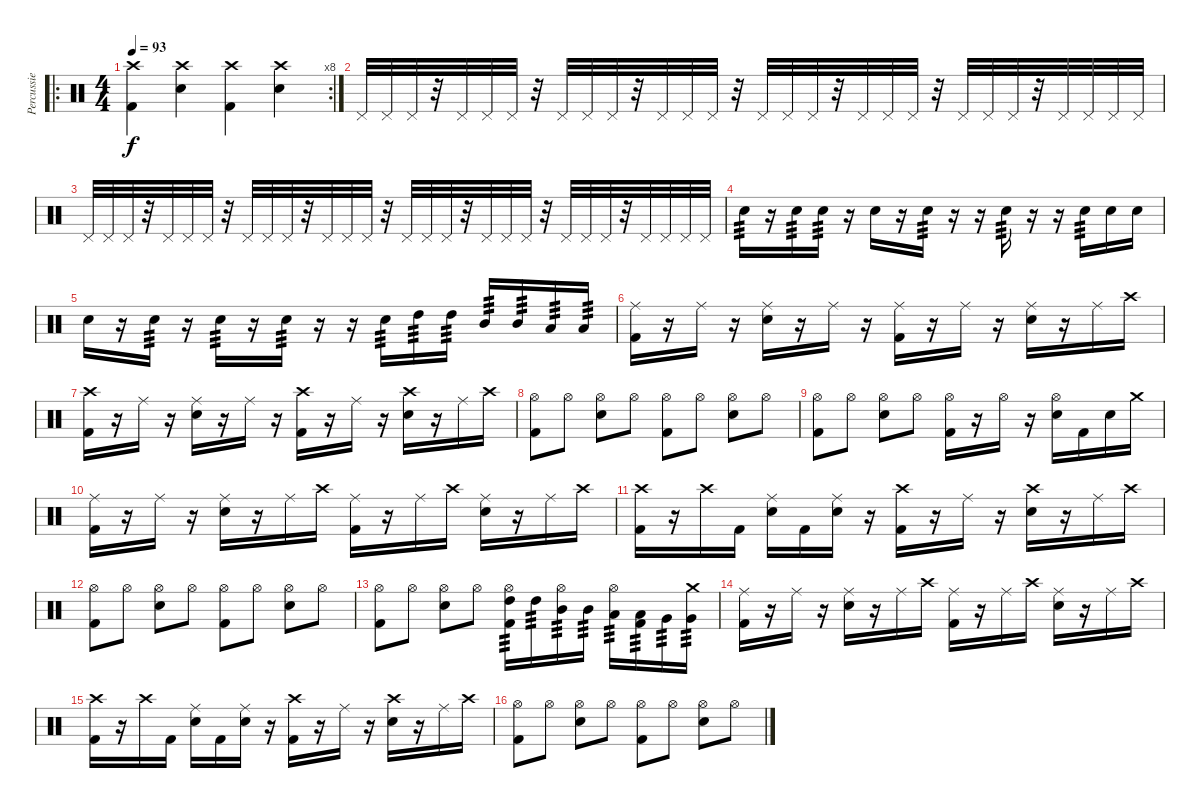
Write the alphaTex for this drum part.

\track ("Percussie" "Percussie") {instrument percussion}
\staff {score}
\articulation defaults
\ro
\rc 8
\ts (4 4)
\tempo 93
\clef neutral
\ks c
("Crash high (hit)" "Kick (hit) 2").4{dy f} ("Crash high (hit)" "Electric Snare (hit)").4 ("Crash high (hit)" "Kick (hit) 2").4 ("Crash high (hit)" "Electric Snare (hit)").4 |
"Pedal Hi-Hat (hit)".32 "Pedal Hi-Hat (hit)".32 "Pedal Hi-Hat (hit)".32 r.32 "Pedal Hi-Hat (hit)".32 "Pedal Hi-Hat (hit)".32 "Pedal Hi-Hat (hit)".32 r.32 "Pedal Hi-Hat (hit)".32 "Pedal Hi-Hat (hit)".32 "Pedal Hi-Hat (hit)".32 r.32 "Pedal Hi-Hat (hit)".32 "Pedal Hi-Hat (hit)".32 "Pedal Hi-Hat (hit)".32 r.32 "Pedal Hi-Hat (hit)".32 "Pedal Hi-Hat (hit)".32 "Pedal Hi-Hat (hit)".32 r.32 "Pedal Hi-Hat (hit)".32 "Pedal Hi-Hat (hit)".32 "Pedal Hi-Hat (hit)".32 r.32 "Pedal Hi-Hat (hit)".32 "Pedal Hi-Hat (hit)".32 "Pedal Hi-Hat (hit)".32 r.32 "Pedal Hi-Hat (hit)".32 "Pedal Hi-Hat (hit)".32 "Pedal Hi-Hat (hit)".32 "Pedal Hi-Hat (hit)".32 |
"Pedal Hi-Hat (hit)".32 "Pedal Hi-Hat (hit)".32 "Pedal Hi-Hat (hit)".32 r.32 "Pedal Hi-Hat (hit)".32 "Pedal Hi-Hat (hit)".32 "Pedal Hi-Hat (hit)".32 r.32 "Pedal Hi-Hat (hit)".32 "Pedal Hi-Hat (hit)".32 "Pedal Hi-Hat (hit)".32 r.32 "Pedal Hi-Hat (hit)".32 "Pedal Hi-Hat (hit)".32 "Pedal Hi-Hat (hit)".32 r.32 "Pedal Hi-Hat (hit)".32 "Pedal Hi-Hat (hit)".32 "Pedal Hi-Hat (hit)".32 r.32 "Pedal Hi-Hat (hit)".32 "Pedal Hi-Hat (hit)".32 "Pedal Hi-Hat (hit)".32 r.32 "Pedal Hi-Hat (hit)".32 "Pedal Hi-Hat (hit)".32 "Pedal Hi-Hat (hit)".32 r.32 "Pedal Hi-Hat (hit)".32 "Pedal Hi-Hat (hit)".32 "Pedal Hi-Hat (hit)".32 "Pedal Hi-Hat (hit)".32 |
"Electric Snare (hit)".16{tp 3} r.16 "Electric Snare (hit)".16{tp 3} "Electric Snare (hit)".16{tp 3} r.16 "Electric Snare (hit)".16 r.16 "Electric Snare (hit)".16{tp 3} r.16 r.16 "Electric Snare (hit)".16{tp 3} r.16 r.16 "Electric Snare (hit)".16{tp 3} "Electric Snare (hit)".16 "Electric Snare (hit)".16 |
"Electric Snare (hit)".16 r.16 "Electric Snare (hit)".16{tp 3} r.16 "Electric Snare (hit)".16{tp 3} r.16 "Electric Snare (hit)".16{tp 3} r.16 r.16 "Electric Snare (hit)".16{tp 3} "High Tom (hit)".16{tp 3} "High Tom (hit)".16{tp 3} "Mid Tom (hit)".16{tp 3} "Mid Tom (hit)".16{tp 3} "Low Tom (hit)".16{tp 3} "Low Tom (hit)".16{tp 3} |
("Ride (middle)" "Kick (hit) 2").16 r.16 "Ride (middle)".16 r.16 ("Ride (middle)" "Electric Snare (hit)").16 r.16 "Ride (middle)".16 r.16 ("Ride (middle)" "Kick (hit) 2").16 r.16 "Ride (middle)".16 r.16 ("Ride (middle)" "Electric Snare (hit)").16 r.16 "Ride (middle)".16 "Crash high (hit)".16 |
("Crash high (hit)" "Kick (hit) 2").16 r.16 "Ride (middle)".16 r.16 ("Ride (middle)" "Electric Snare (hit)").16 r.16 "Ride (middle)".16 r.16 ("Crash high (hit)" "Kick (hit) 2").16 r.16 "Ride (middle)".16 r.16 ("Crash high (hit)" "Electric Snare (hit)").16 r.16 "Ride (middle)".16 "Crash high (hit)".16 |
("Hi-Hat (open)" "Kick (hit) 2").8 "Hi-Hat (open)".8 ("Hi-Hat (open)" "Electric Snare (hit)").8 "Hi-Hat (open)".8 ("Hi-Hat (open)" "Kick (hit) 2").8 "Hi-Hat (open)".8 ("Hi-Hat (open)" "Electric Snare (hit)").8 "Hi-Hat (open)".8 |
("Hi-Hat (open)" "Kick (hit) 2").8 "Hi-Hat (open)".8 ("Hi-Hat (open)" "Electric Snare (hit)").8 "Hi-Hat (open)".8 ("Hi-Hat (open)" "Kick (hit) 2").16 r.16 "Hi-Hat (open)".16 r.16 ("Hi-Hat (open)" "Electric Snare (hit)").16 "Kick (hit) 2".16 "Electric Snare (hit)".16 "Crash medium (hit)".16 |
("Ride (middle)" "Kick (hit) 2").16 r.16 "Ride (middle)".16 r.16 ("Ride (middle)" "Electric Snare (hit)").16 r.16 "Ride (middle)".16 "Crash high (hit)".16 ("Ride (middle)" "Kick (hit) 2").16 r.16 "Ride (middle)".16 "Crash high (hit)".16 ("Ride (middle)" "Electric Snare (hit)").16 r.16 "Ride (middle)".16 "Crash high (hit)".16 |
("Crash high (hit)" "Kick (hit) 2").16 r.16 "Crash high (hit)".16 "Kick (hit) 2".16 ("Ride (middle)" "Electric Snare (hit)").16 "Kick (hit) 2".16 ("Ride (middle)" "Electric Snare (hit)").16 r.16 ("Crash high (hit)" "Kick (hit) 2").16 r.16 "Ride (middle)".16 r.16 ("Crash high (hit)" "Electric Snare (hit)").16 r.16 "Ride (middle)".16 "Crash high (hit)".16 |
("Hi-Hat (open)" "Kick (hit) 2").8 "Hi-Hat (open)".8 ("Hi-Hat (open)" "Electric Snare (hit)").8 "Hi-Hat (open)".8 ("Hi-Hat (open)" "Kick (hit) 2").8 "Hi-Hat (open)".8 ("Hi-Hat (open)" "Electric Snare (hit)").8 "Hi-Hat (open)".8 |
("Hi-Hat (open)" "Kick (hit) 2").8 "Hi-Hat (open)".8 ("Hi-Hat (open)" "Electric Snare (hit)").8 "Hi-Hat (open)".8 ("Hi-Hat (open)" "High Tom (hit)" "Kick (hit) 2").16{tp 3} "High Tom (hit)".16{tp 3} ("Hi-Hat (open)" "Mid Tom (hit)").16{tp 3} "Mid Tom (hit)".16{tp 3} ("Hi-Hat (open)" "Low Tom (hit)").16{tp 3} ("Low Tom (hit)" "Kick (hit) 2").16{tp 3} "Very Low Tom (hit)".16{tp 3} ("Crash medium (hit)" "Very Low Tom (hit)").16{tp 3} |
("Ride (middle)" "Kick (hit) 2").16 r.16 "Ride (middle)".16 r.16 ("Ride (middle)" "Electric Snare (hit)").16 r.16 "Ride (middle)".16 "Crash high (hit)".16 ("Ride (middle)" "Kick (hit) 2").16 r.16 "Ride (middle)".16 "Crash high (hit)".16 ("Ride (middle)" "Electric Snare (hit)").16 r.16 "Ride (middle)".16 "Crash high (hit)".16 |
("Crash high (hit)" "Kick (hit) 2").16 r.16 "Crash high (hit)".16 "Kick (hit) 2".16 ("Ride (middle)" "Electric Snare (hit)").16 "Kick (hit) 2".16 ("Ride (middle)" "Electric Snare (hit)").16 r.16 ("Crash high (hit)" "Kick (hit) 2").16 r.16 "Ride (middle)".16 r.16 ("Crash high (hit)" "Electric Snare (hit)").16 r.16 "Ride (middle)".16 "Crash high (hit)".16 |
("Hi-Hat (open)" "Kick (hit) 2").8 "Hi-Hat (open)".8 ("Hi-Hat (open)" "Electric Snare (hit)").8 "Hi-Hat (open)".8 ("Hi-Hat (open)" "Kick (hit) 2").8 "Hi-Hat (open)".8 ("Hi-Hat (open)" "Electric Snare (hit)").8 "Hi-Hat (open)".8
